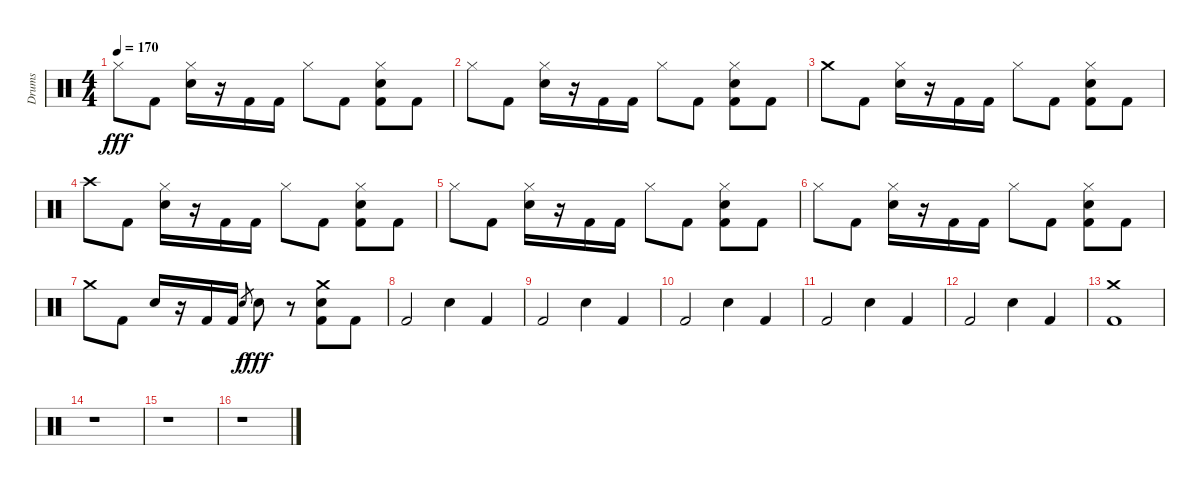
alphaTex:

\track ("Drums" "Drums") {instrument percussion}
\staff {score}
\articulation defaults
\ts (4 4)
\tempo 170
\clef neutral
\ks c "Hi-Hat (closed)".8{dy fff} "Kick (hit) 2".8
("Hi-Hat (closed)" "Electric Snare (hit)").16 r.16 "Kick (hit) 2".16 "Kick (hit) 2".16 "Hi-Hat (closed)".8 "Kick (hit) 2".8 ("Hi-Hat (closed)" "Electric Snare (hit)" "Kick (hit) 2").8 "Kick (hit) 2".8 |
"Hi-Hat (closed)".8 "Kick (hit) 2".8 ("Hi-Hat (closed)" "Electric Snare (hit)").16 r.16 "Kick (hit) 2".16 "Kick (hit) 2".16 "Hi-Hat (closed)".8 "Kick (hit) 2".8 ("Hi-Hat (closed)" "Electric Snare (hit)" "Kick (hit) 2").8 "Kick (hit) 2".8 |
"Crash medium (hit)".8 "Kick (hit) 2".8 ("Hi-Hat (closed)" "Electric Snare (hit)").16 r.16 "Kick (hit) 2".16 "Kick (hit) 2".16 "Hi-Hat (closed)".8 "Kick (hit) 2".8 ("Hi-Hat (closed)" "Electric Snare (hit)" "Kick (hit) 2").8 "Kick (hit) 2".8 |
"Crash high (hit)".8 "Kick (hit) 2".8 ("Hi-Hat (closed)" "Electric Snare (hit)").16 r.16 "Kick (hit) 2".16 "Kick (hit) 2".16 "Hi-Hat (closed)".8 "Kick (hit) 2".8 ("Hi-Hat (closed)" "Electric Snare (hit)" "Kick (hit) 2").8 "Kick (hit) 2".8 |
"Hi-Hat (closed)".8 "Kick (hit) 2".8 ("Hi-Hat (closed)" "Electric Snare (hit)").16 r.16 "Kick (hit) 2".16 "Kick (hit) 2".16 "Hi-Hat (closed)".8 "Kick (hit) 2".8 ("Hi-Hat (closed)" "Electric Snare (hit)" "Kick (hit) 2").8 "Kick (hit) 2".8 |
"Hi-Hat (closed)".8 "Kick (hit) 2".8 ("Hi-Hat (closed)" "Electric Snare (hit)").16 r.16 "Kick (hit) 2".16 "Kick (hit) 2".16 "Hi-Hat (closed)".8 "Kick (hit) 2".8 ("Hi-Hat (closed)" "Electric Snare (hit)" "Kick (hit) 2").8 "Kick (hit) 2".8 |
"Crash medium (hit)".8 "Kick (hit) 2".8 "Electric Snare (hit)".16 r.16 "Kick (hit) 2".16 "Kick (hit) 2".16 "Electric Snare (hit)".8{gr dy f} "Electric Snare (hit)".8{dy fff} r.8 ("Crash medium (hit)" "Electric Snare (hit)" "Kick (hit) 2").8 "Kick (hit) 2".8 |
"Kick (hit) 2".2 "Electric Snare (hit)".4 "Kick (hit) 2".4 |
"Kick (hit) 2".2 "Electric Snare (hit)".4 "Kick (hit) 2".4 |
"Kick (hit) 2".2 "Electric Snare (hit)".4 "Kick (hit) 2".4 |
"Kick (hit) 2".2 "Electric Snare (hit)".4 "Kick (hit) 2".4 |
"Kick (hit) 2".2 "Electric Snare (hit)".4 "Kick (hit) 2".4 |
("Crash medium (hit)" "Kick (hit) 2").1 |
r.1 |
r.1 |
r.1
